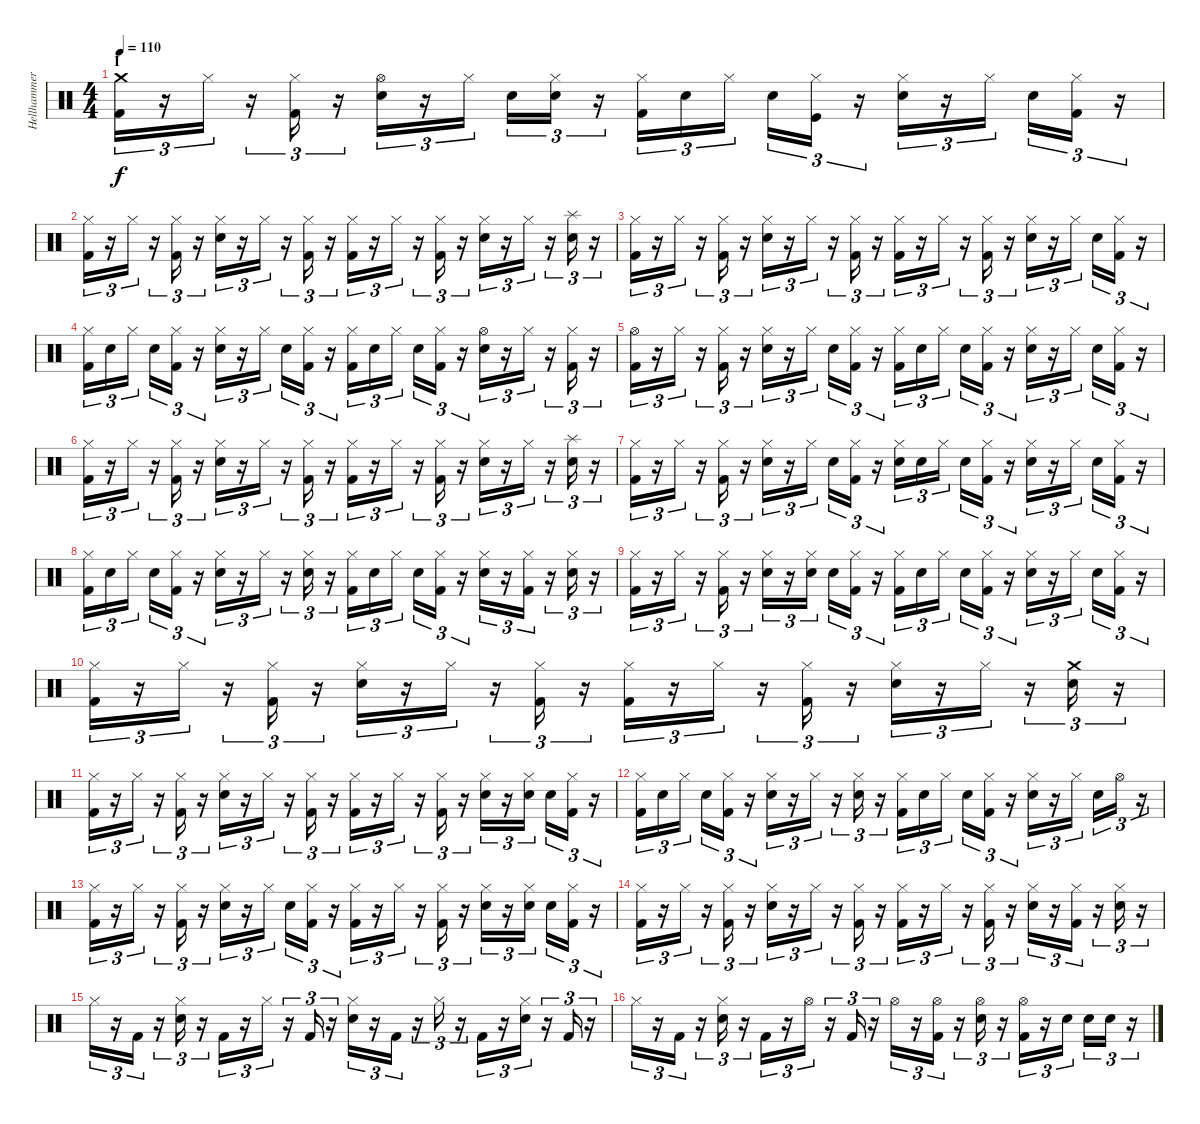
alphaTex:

\track ("Hellhammer" "Hellhammer") {instrument percussion}
\staff {score}
\articulation defaults
\ts (4 4)
\section ("" "I")
\tempo 110
\clef neutral
\ks c
("Kick (hit) 2" "Crash medium (hit)").16{tu (3 2) dy f} r.16{tu (3 2)} "Hi-Hat (closed)".16{tu (3 2)} r.16{tu (3 2)} ("Kick (hit) 2" "Hi-Hat (closed)").16{tu (3 2)} r.16{tu (3 2)} ("Electric Snare (hit)" "Hi-Hat (open)").16{tu (3 2)} r.16{tu (3 2)} "Hi-Hat (closed)".16{tu (3 2)} "Electric Snare (hit)".16{tu (3 2)} ("Electric Snare (hit)" "Hi-Hat (closed)").16{tu (3 2)} r.16{tu (3 2)} ("Kick (hit) 2" "Hi-Hat (closed)").16{tu (3 2)} "Electric Snare (hit)".16{tu (3 2)} "Hi-Hat (closed)".16{tu (3 2)} "Electric Snare (hit)".16{tu (3 2)} ("Kick (hit)" "Hi-Hat (closed)").16{tu (3 2)} r.16{tu (3 2)} ("Electric Snare (hit)" "Hi-Hat (closed)").16{tu (3 2)} r.16{tu (3 2)} "Hi-Hat (closed)".16{tu (3 2)} "Electric Snare (hit)".16{tu (3 2)} ("Kick (hit) 2" "Hi-Hat (closed)").16{tu (3 2)} r.16{tu (3 2)} |
("Kick (hit) 2" "Hi-Hat (closed)").16{tu (3 2)} r.16{tu (3 2)} "Hi-Hat (closed)".16{tu (3 2)} r.16{tu (3 2)} ("Kick (hit) 2" "Hi-Hat (closed)").16{tu (3 2)} r.16{tu (3 2)} ("Electric Snare (hit)" "Hi-Hat (closed)").16{tu (3 2)} r.16{tu (3 2)} "Hi-Hat (closed)".16{tu (3 2)} r.16{tu (3 2)} ("Kick (hit) 2" "Hi-Hat (closed)").16{tu (3 2)} r.16{tu (3 2)} ("Kick (hit) 2" "Hi-Hat (closed)").16{tu (3 2)} r.16{tu (3 2)} "Hi-Hat (closed)".16{tu (3 2)} r.16{tu (3 2)} ("Kick (hit) 2" "Hi-Hat (closed)").16{tu (3 2)} r.16{tu (3 2)} ("Electric Snare (hit)" "Hi-Hat (closed)").16{tu (3 2)} r.16{tu (3 2)} "Hi-Hat (closed)".16{tu (3 2)} r.16{tu (3 2)} ("Electric Snare (hit)" "Splash (hit)").16{tu (3 2)} r.16{tu (3 2)} |
("Kick (hit) 2" "Hi-Hat (closed)").16{tu (3 2)} r.16{tu (3 2)} "Hi-Hat (closed)".16{tu (3 2)} r.16{tu (3 2)} ("Kick (hit) 2" "Hi-Hat (closed)").16{tu (3 2)} r.16{tu (3 2)} ("Electric Snare (hit)" "Hi-Hat (closed)").16{tu (3 2)} r.16{tu (3 2)} "Hi-Hat (closed)".16{tu (3 2)} r.16{tu (3 2)} ("Kick (hit) 2" "Hi-Hat (closed)").16{tu (3 2)} r.16{tu (3 2)} ("Kick (hit) 2" "Hi-Hat (closed)").16{tu (3 2)} r.16{tu (3 2)} "Hi-Hat (closed)".16{tu (3 2)} r.16{tu (3 2)} ("Kick (hit) 2" "Hi-Hat (closed)").16{tu (3 2)} r.16{tu (3 2)} ("Electric Snare (hit)" "Hi-Hat (closed)").16{tu (3 2)} r.16{tu (3 2)} "Hi-Hat (closed)".16{tu (3 2)} "Electric Snare (hit)".16{tu (3 2)} ("Kick (hit) 2" "Hi-Hat (closed)").16{tu (3 2)} r.16{tu (3 2)} |
("Kick (hit) 2" "Hi-Hat (closed)").16{tu (3 2)} "Electric Snare (hit)".16{tu (3 2)} "Hi-Hat (closed)".16{tu (3 2)} "Electric Snare (hit)".16{tu (3 2)} ("Kick (hit) 2" "Hi-Hat (closed)").16{tu (3 2)} r.16{tu (3 2)} ("Electric Snare (hit)" "Hi-Hat (closed)").16{tu (3 2)} r.16{tu (3 2)} "Hi-Hat (closed)".16{tu (3 2)} "Electric Snare (hit)".16{tu (3 2)} ("Kick (hit) 2" "Hi-Hat (closed)").16{tu (3 2)} r.16{tu (3 2)} ("Kick (hit) 2" "Hi-Hat (closed)").16{tu (3 2)} "Electric Snare (hit)".16{tu (3 2)} "Hi-Hat (closed)".16{tu (3 2)} "Electric Snare (hit)".16{tu (3 2)} ("Kick (hit) 2" "Hi-Hat (closed)").16{tu (3 2)} r.16{tu (3 2)} ("Electric Snare (hit)" "Hi-Hat (open)").16{tu (3 2)} r.16{tu (3 2)} "Hi-Hat (closed)".16{tu (3 2)} r.16{tu (3 2)} ("Kick (hit) 2" "Hi-Hat (closed)").16{tu (3 2)} r.16{tu (3 2)} |
("Kick (hit) 2" "Hi-Hat (open)").16{tu (3 2)} r.16{tu (3 2)} "Hi-Hat (closed)".16{tu (3 2)} r.16{tu (3 2)} ("Kick (hit) 2" "Hi-Hat (closed)").16{tu (3 2)} r.16{tu (3 2)} ("Electric Snare (hit)" "Hi-Hat (closed)").16{tu (3 2)} r.16{tu (3 2)} "Hi-Hat (closed)".16{tu (3 2)} "Electric Snare (hit)".16{tu (3 2)} ("Kick (hit) 2" "Hi-Hat (closed)").16{tu (3 2)} r.16{tu (3 2)} ("Kick (hit) 2" "Hi-Hat (closed)").16{tu (3 2)} "Electric Snare (hit)".16{tu (3 2)} "Hi-Hat (closed)".16{tu (3 2)} "Electric Snare (hit)".16{tu (3 2)} ("Kick (hit) 2" "Hi-Hat (closed)").16{tu (3 2)} r.16{tu (3 2)} ("Electric Snare (hit)" "Hi-Hat (closed)").16{tu (3 2)} r.16{tu (3 2)} "Hi-Hat (closed)".16{tu (3 2)} "Electric Snare (hit)".16{tu (3 2)} ("Kick (hit) 2" "Hi-Hat (closed)").16{tu (3 2)} r.16{tu (3 2)} |
("Kick (hit) 2" "Hi-Hat (closed)").16{tu (3 2)} r.16{tu (3 2)} "Hi-Hat (closed)".16{tu (3 2)} r.16{tu (3 2)} ("Kick (hit) 2" "Hi-Hat (closed)").16{tu (3 2)} r.16{tu (3 2)} ("Electric Snare (hit)" "Hi-Hat (closed)").16{tu (3 2)} r.16{tu (3 2)} "Hi-Hat (closed)".16{tu (3 2)} r.16{tu (3 2)} ("Kick (hit) 2" "Hi-Hat (closed)").16{tu (3 2)} r.16{tu (3 2)} ("Kick (hit) 2" "Hi-Hat (closed)").16{tu (3 2)} r.16{tu (3 2)} "Hi-Hat (closed)".16{tu (3 2)} r.16{tu (3 2)} ("Kick (hit) 2" "Hi-Hat (closed)").16{tu (3 2)} r.16{tu (3 2)} ("Electric Snare (hit)" "Hi-Hat (closed)").16{tu (3 2)} r.16{tu (3 2)} "Hi-Hat (closed)".16{tu (3 2)} r.16{tu (3 2)} ("Electric Snare (hit)" "Splash (hit)").16{tu (3 2)} r.16{tu (3 2)} |
("Kick (hit) 2" "Hi-Hat (closed)").16{tu (3 2)} r.16{tu (3 2)} "Hi-Hat (closed)".16{tu (3 2)} r.16{tu (3 2)} ("Kick (hit) 2" "Hi-Hat (closed)").16{tu (3 2)} r.16{tu (3 2)} ("Electric Snare (hit)" "Hi-Hat (closed)").16{tu (3 2)} r.16{tu (3 2)} "Hi-Hat (closed)".16{tu (3 2)} "Electric Snare (hit)".16{tu (3 2)} ("Kick (hit) 2" "Hi-Hat (closed)").16{tu (3 2)} r.16{tu (3 2)} ("Electric Snare (hit)" "Hi-Hat (closed)").16{tu (3 2)} "Electric Snare (hit)".16{tu (3 2)} "Hi-Hat (closed)".16{tu (3 2)} "Electric Snare (hit)".16{tu (3 2)} ("Kick (hit) 2" "Hi-Hat (closed)").16{tu (3 2)} r.16{tu (3 2)} ("Electric Snare (hit)" "Hi-Hat (closed)").16{tu (3 2)} r.16{tu (3 2)} "Hi-Hat (closed)".16{tu (3 2)} "Electric Snare (hit)".16{tu (3 2)} ("Kick (hit) 2" "Hi-Hat (closed)").16{tu (3 2)} r.16{tu (3 2)} |
("Kick (hit) 2" "Hi-Hat (closed)").16{tu (3 2)} "Electric Snare (hit)".16{tu (3 2)} "Hi-Hat (closed)".16{tu (3 2)} "Electric Snare (hit)".16{tu (3 2)} ("Kick (hit) 2" "Hi-Hat (closed)").16{tu (3 2)} r.16{tu (3 2)} ("Electric Snare (hit)" "Hi-Hat (closed)").16{tu (3 2)} r.16{tu (3 2)} "Hi-Hat (closed)".16{tu (3 2)} r.16{tu (3 2)} ("Electric Snare (hit)" "Hi-Hat (closed)").16{tu (3 2)} r.16{tu (3 2)} ("Kick (hit) 2" "Hi-Hat (closed)").16{tu (3 2)} "Electric Snare (hit)".16{tu (3 2)} "Hi-Hat (closed)".16{tu (3 2)} "Electric Snare (hit)".16{tu (3 2)} ("Kick (hit) 2" "Hi-Hat (closed)").16{tu (3 2)} r.16{tu (3 2)} ("Electric Snare (hit)" "Hi-Hat (closed)").16{tu (3 2)} r.16{tu (3 2)} ("Kick (hit) 2" "Hi-Hat (closed)").16{tu (3 2)} r.16{tu (3 2)} ("Electric Snare (hit)" "Hi-Hat (closed)").16{tu (3 2)} r.16{tu (3 2)} |
("Kick (hit) 2" "Hi-Hat (closed)").16{tu (3 2)} r.16{tu (3 2)} "Hi-Hat (closed)".16{tu (3 2)} r.16{tu (3 2)} ("Kick (hit) 2" "Hi-Hat (closed)").16{tu (3 2)} r.16{tu (3 2)} ("Electric Snare (hit)" "Hi-Hat (closed)").16{tu (3 2)} r.16{tu (3 2)} ("Electric Snare (hit)" "Hi-Hat (closed)").16{tu (3 2)} "Electric Snare (hit)".16{tu (3 2)} ("Kick (hit) 2" "Hi-Hat (closed)").16{tu (3 2)} r.16{tu (3 2)} ("Kick (hit) 2" "Hi-Hat (closed)").16{tu (3 2)} "Electric Snare (hit)".16{tu (3 2)} "Hi-Hat (closed)".16{tu (3 2)} "Electric Snare (hit)".16{tu (3 2)} ("Kick (hit) 2" "Hi-Hat (closed)").16{tu (3 2)} r.16{tu (3 2)} ("Electric Snare (hit)" "Hi-Hat (closed)").16{tu (3 2)} r.16{tu (3 2)} "Hi-Hat (closed)".16{tu (3 2)} "Electric Snare (hit)".16{tu (3 2)} ("Kick (hit) 2" "Hi-Hat (closed)").16{tu (3 2)} r.16{tu (3 2)} |
("Kick (hit) 2" "Hi-Hat (closed)").16{tu (3 2)} r.16{tu (3 2)} "Hi-Hat (closed)".16{tu (3 2)} r.16{tu (3 2)} ("Kick (hit) 2" "Hi-Hat (closed)").16{tu (3 2)} r.16{tu (3 2)} ("Electric Snare (hit)" "Hi-Hat (closed)").16{tu (3 2)} r.16{tu (3 2)} "Hi-Hat (closed)".16{tu (3 2)} r.16{tu (3 2)} ("Kick (hit) 2" "Hi-Hat (closed)").16{tu (3 2)} r.16{tu (3 2)} ("Kick (hit) 2" "Hi-Hat (closed)").16{tu (3 2)} r.16{tu (3 2)} "Hi-Hat (closed)".16{tu (3 2)} r.16{tu (3 2)} ("Kick (hit) 2" "Hi-Hat (closed)").16{tu (3 2)} r.16{tu (3 2)} ("Electric Snare (hit)" "Hi-Hat (closed)").16{tu (3 2)} r.16{tu (3 2)} "Hi-Hat (closed)".16{tu (3 2)} r.16{tu (3 2)} ("Electric Snare (hit)" "Crash medium (hit)").16{tu (3 2)} r.16{tu (3 2)} |
("Kick (hit) 2" "Hi-Hat (closed)").16{tu (3 2)} r.16{tu (3 2)} "Hi-Hat (closed)".16{tu (3 2)} r.16{tu (3 2)} ("Kick (hit) 2" "Hi-Hat (closed)").16{tu (3 2)} r.16{tu (3 2)} ("Electric Snare (hit)" "Hi-Hat (closed)").16{tu (3 2)} r.16{tu (3 2)} "Hi-Hat (closed)".16{tu (3 2)} r.16{tu (3 2)} ("Kick (hit) 2" "Hi-Hat (closed)").16{tu (3 2)} r.16{tu (3 2)} ("Kick (hit) 2" "Hi-Hat (closed)").16{tu (3 2)} r.16{tu (3 2)} "Hi-Hat (closed)".16{tu (3 2)} r.16{tu (3 2)} ("Kick (hit) 2" "Hi-Hat (closed)").16{tu (3 2)} r.16{tu (3 2)} ("Electric Snare (hit)" "Hi-Hat (closed)").16{tu (3 2)} r.16{tu (3 2)} ("Electric Snare (hit)" "Hi-Hat (closed)").16{tu (3 2)} "Electric Snare (hit)".16{tu (3 2)} ("Kick (hit) 2" "Hi-Hat (closed)").16{tu (3 2)} r.16{tu (3 2)} |
("Kick (hit) 2" "Hi-Hat (closed)").16{tu (3 2)} "Electric Snare (hit)".16{tu (3 2)} "Hi-Hat (closed)".16{tu (3 2)} "Electric Snare (hit)".16{tu (3 2)} ("Kick (hit) 2" "Hi-Hat (closed)").16{tu (3 2)} r.16{tu (3 2)} ("Electric Snare (hit)" "Hi-Hat (closed)").16{tu (3 2)} r.16{tu (3 2)} "Hi-Hat (closed)".16{tu (3 2)} r.16{tu (3 2)} ("Electric Snare (hit)" "Hi-Hat (closed)").16{tu (3 2)} r.16{tu (3 2)} ("Kick (hit) 2" "Hi-Hat (closed)").16{tu (3 2)} "Electric Snare (hit)".16{tu (3 2)} "Hi-Hat (closed)".16{tu (3 2)} "Electric Snare (hit)".16{tu (3 2)} ("Kick (hit) 2" "Hi-Hat (closed)").16{tu (3 2)} r.16{tu (3 2)} ("Electric Snare (hit)" "Hi-Hat (closed)").16{tu (3 2)} r.16{tu (3 2)} "Hi-Hat (closed)".16{tu (3 2)} "Electric Snare (hit)".16{tu (3 2)} "Hi-Hat (open)".16{tu (3 2)} r.16{tu (3 2)} |
("Kick (hit) 2" "Hi-Hat (closed)").16{tu (3 2)} r.16{tu (3 2)} "Hi-Hat (closed)".16{tu (3 2)} r.16{tu (3 2)} ("Kick (hit) 2" "Hi-Hat (closed)").16{tu (3 2)} r.16{tu (3 2)} ("Electric Snare (hit)" "Hi-Hat (closed)").16{tu (3 2)} r.16{tu (3 2)} "Hi-Hat (closed)".16{tu (3 2)} "Electric Snare (hit)".16{tu (3 2)} ("Kick (hit) 2" "Hi-Hat (closed)").16{tu (3 2)} r.16{tu (3 2)} ("Kick (hit) 2" "Hi-Hat (closed)").16{tu (3 2)} r.16{tu (3 2)} "Hi-Hat (closed)".16{tu (3 2)} r.16{tu (3 2)} ("Kick (hit) 2" "Hi-Hat (closed)").16{tu (3 2)} r.16{tu (3 2)} ("Electric Snare (hit)" "Hi-Hat (closed)").16{tu (3 2)} r.16{tu (3 2)} ("Electric Snare (hit)" "Hi-Hat (closed)").16{tu (3 2)} "Electric Snare (hit)".16{tu (3 2)} ("Kick (hit) 2" "Hi-Hat (closed)").16{tu (3 2)} r.16{tu (3 2)} |
("Kick (hit) 2" "Hi-Hat (closed)").16{tu (3 2)} r.16{tu (3 2)} "Hi-Hat (closed)".16{tu (3 2)} r.16{tu (3 2)} ("Kick (hit) 2" "Hi-Hat (closed)").16{tu (3 2)} r.16{tu (3 2)} ("Electric Snare (hit)" "Hi-Hat (closed)").16{tu (3 2)} r.16{tu (3 2)} "Hi-Hat (closed)".16{tu (3 2)} r.16{tu (3 2)} ("Kick (hit) 2" "Hi-Hat (closed)").16{tu (3 2)} r.16{tu (3 2)} ("Kick (hit) 2" "Hi-Hat (closed)").16{tu (3 2)} r.16{tu (3 2)} "Hi-Hat (closed)".16{tu (3 2)} r.16{tu (3 2)} ("Kick (hit) 2" "Hi-Hat (closed)").16{tu (3 2)} r.16{tu (3 2)} ("Electric Snare (hit)" "Hi-Hat (closed)").16{tu (3 2)} r.16{tu (3 2)} ("Kick (hit) 2" "Hi-Hat (closed)").16{tu (3 2)} r.16{tu (3 2)} ("Electric Snare (hit)" "Hi-Hat (closed)").16{tu (3 2)} r.16{tu (3 2)} |
"Hi-Hat (closed)".16{tu (3 2)} r.16{tu (3 2)} "Kick (hit) 2".16{tu (3 2)} r.16{tu (3 2)} ("Electric Snare (hit)" "Hi-Hat (closed)").16{tu (3 2)} r.16{tu (3 2)} "Kick (hit) 2".16{tu (3 2)} r.16{tu (3 2)} "Hi-Hat (closed)".16{tu (3 2)} r.16{tu (3 2)} "Kick (hit) 2".16{tu (3 2)} r.16{tu (3 2)} ("Electric Snare (hit)" "Hi-Hat (closed)").16{tu (3 2)} r.16{tu (3 2)} "Kick (hit) 2".16{tu (3 2)} r.16{tu (3 2)} "Hi-Hat (closed)".16{tu (3 2)} r.16{tu (3 2)} "Kick (hit) 2".16{tu (3 2)} r.16{tu (3 2)} ("Electric Snare (hit)" "Hi-Hat (closed)").16{tu (3 2)} r.16{tu (3 2)} "Kick (hit) 2".16{tu (3 2)} r.16{tu (3 2)} |
"Hi-Hat (closed)".16{tu (3 2)} r.16{tu (3 2)} "Kick (hit) 2".16{tu (3 2)} r.16{tu (3 2)} ("Electric Snare (hit)" "Hi-Hat (closed)").16{tu (3 2)} r.16{tu (3 2)} "Kick (hit) 2".16{tu (3 2)} r.16{tu (3 2)} "Hi-Hat (open)".16{tu (3 2)} r.16{tu (3 2)} "Kick (hit) 2".16{tu (3 2)} r.16{tu (3 2)} "Hi-Hat (open)".16{tu (3 2)} r.16{tu (3 2)} ("Kick (hit) 2" "Hi-Hat (open)").16{tu (3 2)} r.16{tu (3 2)} ("Electric Snare (hit)" "Hi-Hat (open)").16{tu (3 2)} r.16{tu (3 2)} ("Kick (hit) 2" "Hi-Hat (open)").16{tu (3 2)} r.16{tu (3 2)} "Electric Snare (hit)".16{tu (3 2)} "Electric Snare (hit)".16{tu (3 2)} "Electric Snare (hit)".16{tu (3 2)} r.16{tu (3 2)}
